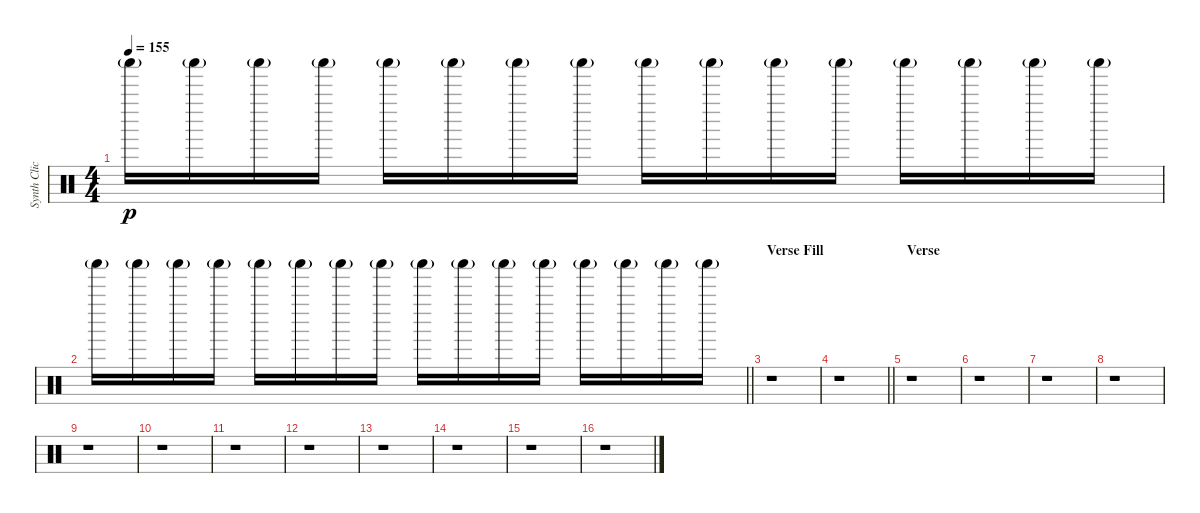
\track ("Synth Click" "Synth Clic") {instrument percussion}
\staff {score}
\articulation defaults
\ts (4 4)
\tempo 155
\clef neutral
\ks c "Shaker (hit)"{g}.16{dy p} "Shaker (hit)"{g}.16 "Shaker (hit)"{g}.16 "Shaker (hit)"{g}.16 "Shaker (hit)"{g}.16 "Shaker (hit)"{g}.16 "Shaker (hit)"{g}.16 "Shaker (hit)"{g}.16 "Shaker (hit)"{g}.16 "Shaker (hit)"{g}.16 "Shaker (hit)"{g}.16 "Shaker (hit)"{g}.16 "Shaker (hit)"{g}.16 "Shaker (hit)"{g}.16 "Shaker (hit)"{g}.16 "Shaker (hit)"{g}.16
|
\barLineRight lightlight "Shaker (hit)"{g}.16 "Shaker (hit)"{g}.16 "Shaker (hit)"{g}.16 "Shaker (hit)"{g}.16 "Shaker (hit)"{g}.16 "Shaker (hit)"{g}.16 "Shaker (hit)"{g}.16 "Shaker (hit)"{g}.16 "Shaker (hit)"{g}.16 "Shaker (hit)"{g}.16 "Shaker (hit)"{g}.16 "Shaker (hit)"{g}.16 "Shaker (hit)"{g}.16 "Shaker (hit)"{g}.16 "Shaker (hit)"{g}.16 "Shaker (hit)"{g}.16
|
\section ("" "Verse Fill")
r.1 |
\barLineRight lightlight
r.1 |
\section ("" "Verse")
r.1 |
r.1 |
r.1 |
r.1 |
r.1 |
r.1 |
r.1 |
r.1 |
r.1 |
r.1 |
r.1 |
r.1
